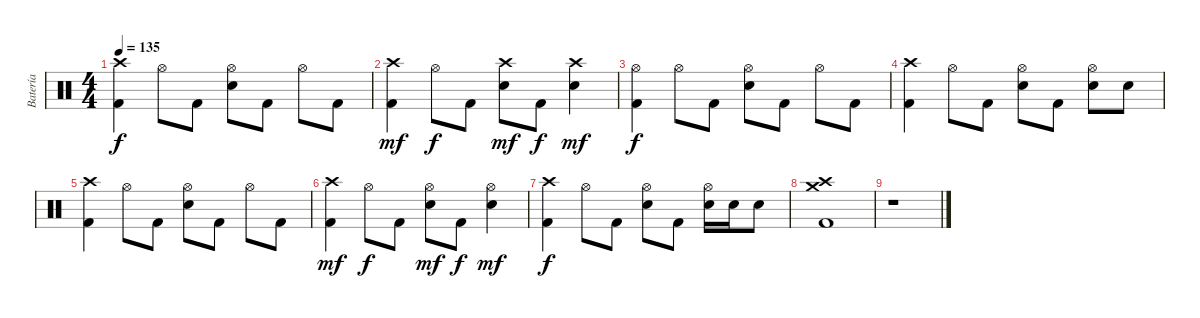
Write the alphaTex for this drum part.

\track ("Batería" "Batería") {instrument percussion}
\staff {score}
\articulation defaults
\ts (4 4)
\tempo 135
\clef neutral
\ks c
("Crash high (hit)" "Kick (hit) 2").4{dy f} "Hi-Hat (open)".8 "Kick (hit) 2".8 ("Hi-Hat (open)" "Snare (hit) 2").8 "Kick (hit) 2".8 "Hi-Hat (open)".8 "Kick (hit) 2".8 |
("Crash high (hit)" "Kick (hit) 2").4{dy mf} "Hi-Hat (open)".8{dy f} "Kick (hit) 2".8 ("Crash high (hit)" "Snare (hit) 2").8{dy mf} "Kick (hit) 2".8{dy f} ("Crash high (hit)" "Snare (hit) 2").4{dy mf} |
("Hi-Hat (open)" "Kick (hit) 2").4{dy f} "Hi-Hat (open)".8 "Kick (hit) 2".8 ("Hi-Hat (open)" "Snare (hit) 2").8 "Kick (hit) 2".8 "Hi-Hat (open)".8 "Kick (hit) 2".8 |
("Crash high (hit)" "Kick (hit) 2").4 "Hi-Hat (open)".8 "Kick (hit) 2".8 ("Hi-Hat (open)" "Snare (hit) 2").8 "Kick (hit) 2".8 ("Hi-Hat (open)" "Snare (hit) 2").8 "Snare (hit) 2".8 |
("Crash high (hit)" "Kick (hit) 2").4 "Hi-Hat (open)".8 "Kick (hit) 2".8 ("Hi-Hat (open)" "Snare (hit) 2").8 "Kick (hit) 2".8 "Hi-Hat (open)".8 "Kick (hit) 2".8 |
("Crash high (hit)" "Kick (hit) 2").4{dy mf} "Hi-Hat (open)".8{dy f} "Kick (hit) 2".8 ("Hi-Hat (open)" "Snare (hit) 2").8{dy mf} "Kick (hit) 2".8{dy f} ("Hi-Hat (open)" "Snare (hit) 2").4{dy mf} |
("Crash high (hit)" "Kick (hit) 2").4{dy f} "Hi-Hat (open)".8 "Kick (hit) 2".8 ("Hi-Hat (open)" "Snare (hit) 2").8 "Kick (hit) 2".8 ("Hi-Hat (open)" "Snare (hit) 2").16 "Snare (hit) 2".16 "Snare (hit) 2".8 |
("Crash high (hit)" "Crash medium (hit)" "Kick (hit) 2").1 |
r.1
